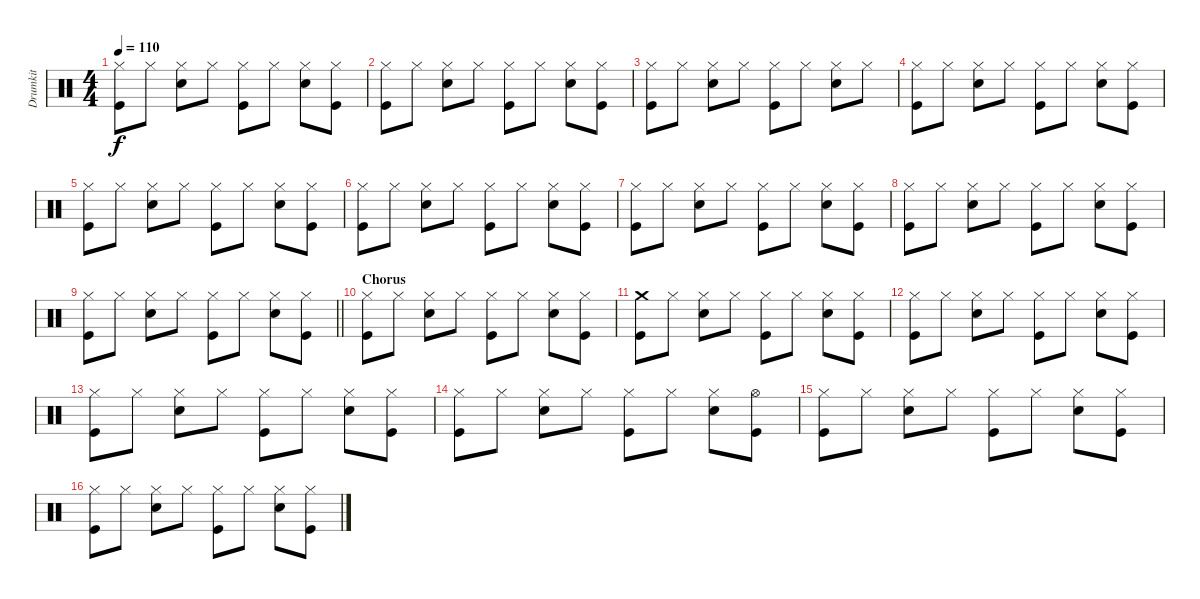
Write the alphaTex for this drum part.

\track ("Drumkit" "Drumkit") {instrument percussion}
\staff {score}
\articulation defaults
\ts (4 4)
\tempo 110
\clef neutral
\ks c
("Hi-Hat (closed)" "Kick (hit)").8{dy f} "Hi-Hat (closed)".8 ("Hi-Hat (closed)" "Snare (hit) 2").8 "Hi-Hat (closed)".8 ("Hi-Hat (closed)" "Kick (hit)").8 "Hi-Hat (closed)".8 ("Hi-Hat (closed)" "Snare (hit) 2").8 ("Hi-Hat (closed)" "Kick (hit)").8 |
("Hi-Hat (closed)" "Kick (hit)").8 "Hi-Hat (closed)".8 ("Hi-Hat (closed)" "Snare (hit) 2").8 "Hi-Hat (closed)".8 ("Hi-Hat (closed)" "Kick (hit)").8 "Hi-Hat (closed)".8 ("Hi-Hat (closed)" "Snare (hit) 2").8 ("Hi-Hat (closed)" "Kick (hit)").8 |
("Hi-Hat (closed)" "Kick (hit)").8 "Hi-Hat (closed)".8 ("Hi-Hat (closed)" "Snare (hit) 2").8 "Hi-Hat (closed)".8 ("Hi-Hat (closed)" "Kick (hit)").8 "Hi-Hat (closed)".8 ("Hi-Hat (closed)" "Snare (hit) 2").8 "Hi-Hat (closed)".8 |
("Hi-Hat (closed)" "Kick (hit)").8 "Hi-Hat (closed)".8 ("Hi-Hat (closed)" "Snare (hit) 2").8 "Hi-Hat (closed)".8 ("Hi-Hat (closed)" "Kick (hit)").8 "Hi-Hat (closed)".8 ("Hi-Hat (closed)" "Snare (hit) 2").8 ("Hi-Hat (closed)" "Kick (hit)").8 |
("Hi-Hat (closed)" "Kick (hit)").8 "Hi-Hat (closed)".8 ("Hi-Hat (closed)" "Snare (hit) 2").8 "Hi-Hat (closed)".8 ("Hi-Hat (closed)" "Kick (hit)").8 "Hi-Hat (closed)".8 ("Hi-Hat (closed)" "Snare (hit) 2").8 ("Hi-Hat (closed)" "Kick (hit)").8 |
("Hi-Hat (closed)" "Kick (hit)").8 "Hi-Hat (closed)".8 ("Hi-Hat (closed)" "Snare (hit) 2").8 "Hi-Hat (closed)".8 ("Hi-Hat (closed)" "Kick (hit)").8 "Hi-Hat (closed)".8 ("Hi-Hat (closed)" "Snare (hit) 2").8 ("Hi-Hat (closed)" "Kick (hit)").8 |
("Hi-Hat (closed)" "Kick (hit)").8 "Hi-Hat (closed)".8 ("Hi-Hat (closed)" "Snare (hit) 2").8 "Hi-Hat (closed)".8 ("Hi-Hat (closed)" "Kick (hit)").8 "Hi-Hat (closed)".8 ("Hi-Hat (closed)" "Snare (hit) 2").8 ("Hi-Hat (closed)" "Kick (hit)").8 |
("Hi-Hat (closed)" "Kick (hit)").8 "Hi-Hat (closed)".8 ("Hi-Hat (closed)" "Snare (hit) 2").8 "Hi-Hat (closed)".8 ("Hi-Hat (closed)" "Kick (hit)").8 "Hi-Hat (closed)".8 ("Hi-Hat (closed)" "Snare (hit) 2").8 ("Hi-Hat (closed)" "Kick (hit)").8 |
\barLineRight lightlight
("Hi-Hat (closed)" "Kick (hit)").8 "Hi-Hat (closed)".8 ("Hi-Hat (closed)" "Snare (hit) 2").8 "Hi-Hat (closed)".8 ("Hi-Hat (closed)" "Kick (hit)").8 "Hi-Hat (closed)".8 ("Hi-Hat (closed)" "Snare (hit) 2").8 ("Hi-Hat (closed)" "Kick (hit)").8 |
\section ("" "Chorus")
("Hi-Hat (closed)" "Kick (hit)").8 "Hi-Hat (closed)".8 ("Hi-Hat (closed)" "Snare (hit) 2").8 "Hi-Hat (closed)".8 ("Hi-Hat (closed)" "Kick (hit)").8 "Hi-Hat (closed)".8 ("Hi-Hat (closed)" "Snare (hit) 2").8 ("Hi-Hat (closed)" "Kick (hit)").8 |
("Crash medium (hit)" "Kick (hit)").8 "Hi-Hat (closed)".8 ("Hi-Hat (closed)" "Snare (hit) 2").8 "Hi-Hat (closed)".8 ("Hi-Hat (closed)" "Kick (hit)").8 "Hi-Hat (closed)".8 ("Hi-Hat (closed)" "Snare (hit) 2").8 ("Hi-Hat (closed)" "Kick (hit)").8 |
("Hi-Hat (closed)" "Kick (hit)").8 "Hi-Hat (closed)".8 ("Hi-Hat (closed)" "Snare (hit) 2").8 "Hi-Hat (closed)".8 ("Hi-Hat (closed)" "Kick (hit)").8 "Hi-Hat (closed)".8 ("Hi-Hat (closed)" "Snare (hit) 2").8 ("Hi-Hat (closed)" "Kick (hit)").8 |
("Hi-Hat (closed)" "Kick (hit)").8 "Hi-Hat (closed)".8 ("Hi-Hat (closed)" "Snare (hit) 2").8 "Hi-Hat (closed)".8 ("Hi-Hat (closed)" "Kick (hit)").8 "Hi-Hat (closed)".8 ("Hi-Hat (closed)" "Snare (hit) 2").8 ("Hi-Hat (closed)" "Kick (hit)").8 |
("Hi-Hat (closed)" "Kick (hit)").8 "Hi-Hat (closed)".8 ("Hi-Hat (closed)" "Snare (hit) 2").8 "Hi-Hat (closed)".8 ("Hi-Hat (closed)" "Kick (hit)").8 "Hi-Hat (closed)".8 ("Hi-Hat (closed)" "Snare (hit) 2").8 ("Hi-Hat (open)" "Kick (hit)").8 |
("Hi-Hat (closed)" "Kick (hit)").8 "Hi-Hat (closed)".8 ("Hi-Hat (closed)" "Snare (hit) 2").8 "Hi-Hat (closed)".8 ("Hi-Hat (closed)" "Kick (hit)").8 "Hi-Hat (closed)".8 ("Hi-Hat (closed)" "Snare (hit) 2").8 ("Hi-Hat (closed)" "Kick (hit)").8 |
("Hi-Hat (closed)" "Kick (hit)").8 "Hi-Hat (closed)".8 ("Hi-Hat (closed)" "Snare (hit) 2").8 "Hi-Hat (closed)".8 ("Hi-Hat (closed)" "Kick (hit)").8 "Hi-Hat (closed)".8 ("Hi-Hat (closed)" "Snare (hit) 2").8 ("Hi-Hat (closed)" "Kick (hit)").8
